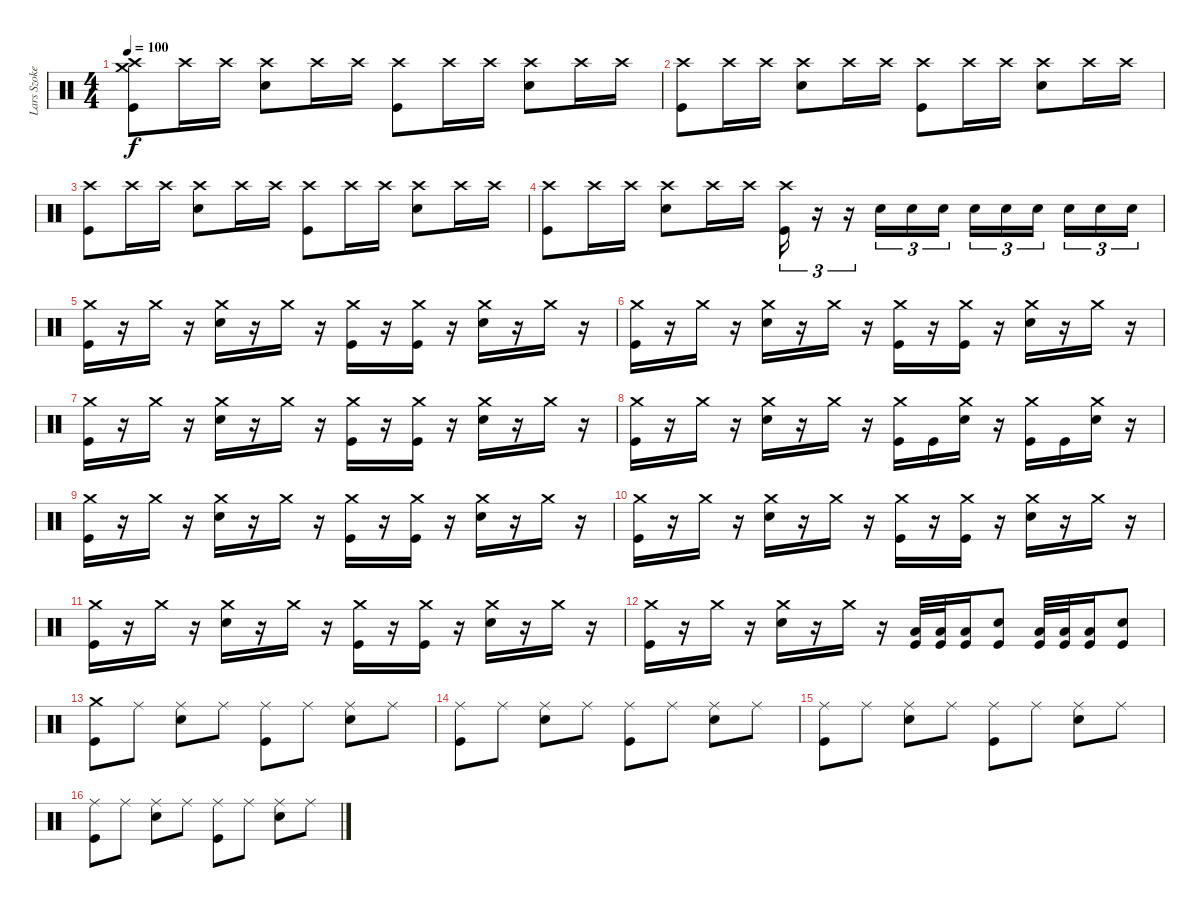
\track ("Lars Szoke" "Lars Szoke") {instrument percussion}
\staff {score}
\articulation defaults
\ts (4 4)
\tempo 100
\clef neutral
\ks c
("Crash high (hit)" "Crash medium (hit)" "Kick (hit)").8{dy f} "Crash high (hit)".16 "Crash high (hit)".16 ("Crash high (hit)" "Electric Snare (hit)").8 "Crash high (hit)".16 "Crash high (hit)".16 ("Crash high (hit)" "Kick (hit)").8 "Crash high (hit)".16 "Crash high (hit)".16 ("Crash high (hit)" "Electric Snare (hit)").8 "Crash high (hit)".16 "Crash high (hit)".16 |
("Crash high (hit)" "Kick (hit)").8 "Crash high (hit)".16 "Crash high (hit)".16 ("Crash high (hit)" "Electric Snare (hit)").8 "Crash high (hit)".16 "Crash high (hit)".16 ("Crash high (hit)" "Kick (hit)").8 "Crash high (hit)".16 "Crash high (hit)".16 ("Crash high (hit)" "Electric Snare (hit)").8 "Crash high (hit)".16 "Crash high (hit)".16 |
("Crash high (hit)" "Kick (hit)").8 "Crash high (hit)".16 "Crash high (hit)".16 ("Crash high (hit)" "Electric Snare (hit)").8 "Crash high (hit)".16 "Crash high (hit)".16 ("Crash high (hit)" "Kick (hit)").8 "Crash high (hit)".16 "Crash high (hit)".16 ("Crash high (hit)" "Electric Snare (hit)").8 "Crash high (hit)".16 "Crash high (hit)".16 |
("Crash high (hit)" "Kick (hit)").8 "Crash high (hit)".16 "Crash high (hit)".16 ("Crash high (hit)" "Electric Snare (hit)").8 "Crash high (hit)".16 "Crash high (hit)".16 ("Crash high (hit)" "Kick (hit)").16{tu (3 2)} r.16{tu (3 2)} r.16{tu (3 2)} "Electric Snare (hit)".16{tu (3 2)} "Electric Snare (hit)".16{tu (3 2)} "Electric Snare (hit)".16{tu (3 2)} "Electric Snare (hit)".16{tu (3 2)} "Electric Snare (hit)".16{tu (3 2)} "Electric Snare (hit)".16{tu (3 2) beam splitsecondary} "Electric Snare (hit)".16{tu (3 2)} "Electric Snare (hit)".16{tu (3 2)} "Electric Snare (hit)".16{tu (3 2)} |
("Crash medium (hit)" "Kick (hit)").16 r.16 "Crash medium (hit)".16 r.16 ("Crash medium (hit)" "Electric Snare (hit)").16 r.16 "Crash medium (hit)".16 r.16 ("Crash medium (hit)" "Kick (hit)").16 r.16 ("Crash medium (hit)" "Kick (hit)").16 r.16 ("Crash medium (hit)" "Electric Snare (hit)").16 r.16 "Crash medium (hit)".16 r.16 |
("Crash medium (hit)" "Kick (hit)").16 r.16 "Crash medium (hit)".16 r.16 ("Crash medium (hit)" "Electric Snare (hit)").16 r.16 "Crash medium (hit)".16 r.16 ("Crash medium (hit)" "Kick (hit)").16 r.16 ("Crash medium (hit)" "Kick (hit)").16 r.16 ("Crash medium (hit)" "Electric Snare (hit)").16 r.16 "Crash medium (hit)".16 r.16 |
("Crash medium (hit)" "Kick (hit)").16 r.16 "Crash medium (hit)".16 r.16 ("Crash medium (hit)" "Electric Snare (hit)").16 r.16 "Crash medium (hit)".16 r.16 ("Crash medium (hit)" "Kick (hit)").16 r.16 ("Crash medium (hit)" "Kick (hit)").16 r.16 ("Crash medium (hit)" "Electric Snare (hit)").16 r.16 "Crash medium (hit)".16 r.16 |
("Crash medium (hit)" "Kick (hit)").16 r.16 "Crash medium (hit)".16 r.16 ("Crash medium (hit)" "Electric Snare (hit)").16 r.16 "Crash medium (hit)".16 r.16 ("Crash medium (hit)" "Kick (hit)").16 "Kick (hit)".16 ("Crash medium (hit)" "Electric Snare (hit)").16 r.16 ("Crash medium (hit)" "Kick (hit)").16 "Kick (hit)".16 ("Crash medium (hit)" "Electric Snare (hit)").16 r.16 |
("Crash medium (hit)" "Kick (hit)").16 r.16 "Crash medium (hit)".16 r.16 ("Crash medium (hit)" "Electric Snare (hit)").16 r.16 "Crash medium (hit)".16 r.16 ("Crash medium (hit)" "Kick (hit)").16 r.16 ("Crash medium (hit)" "Kick (hit)").16 r.16 ("Crash medium (hit)" "Electric Snare (hit)").16 r.16 "Crash medium (hit)".16 r.16 |
("Crash medium (hit)" "Kick (hit)").16 r.16 "Crash medium (hit)".16 r.16 ("Crash medium (hit)" "Electric Snare (hit)").16 r.16 "Crash medium (hit)".16 r.16 ("Crash medium (hit)" "Kick (hit)").16 r.16 ("Crash medium (hit)" "Kick (hit)").16 r.16 ("Crash medium (hit)" "Electric Snare (hit)").16 r.16 "Crash medium (hit)".16 r.16 |
("Crash medium (hit)" "Kick (hit)").16 r.16 "Crash medium (hit)".16 r.16 ("Crash medium (hit)" "Electric Snare (hit)").16 r.16 "Crash medium (hit)".16 r.16 ("Crash medium (hit)" "Kick (hit)").16 r.16 ("Crash medium (hit)" "Kick (hit)").16 r.16 ("Crash medium (hit)" "Electric Snare (hit)").16 r.16 "Crash medium (hit)".16 r.16 |
("Crash medium (hit)" "Kick (hit)").16 r.16 "Crash medium (hit)".16 r.16 ("Crash medium (hit)" "Electric Snare (hit)").16 r.16 "Crash medium (hit)".16 r.16 ("Low Tom (hit)" "Kick (hit)").32 ("Low Tom (hit)" "Kick (hit)").32 ("Low Tom (hit)" "Kick (hit)").16 ("Electric Snare (hit)" "Kick (hit)").8 ("Low Tom (hit)" "Kick (hit)").32 ("Low Tom (hit)" "Kick (hit)").32 ("Low Tom (hit)" "Kick (hit)").16 ("Electric Snare (hit)" "Kick (hit)").8 |
("Crash medium (hit)" "Kick (hit)").8 "Ride (middle)".8 ("Ride (middle)" "Electric Snare (hit)").8 "Ride (middle)".8 ("Ride (middle)" "Kick (hit)").8 "Ride (middle)".8 ("Ride (middle)" "Electric Snare (hit)").8 "Ride (middle)".8 |
("Ride (middle)" "Kick (hit)").8 "Ride (middle)".8 ("Ride (middle)" "Electric Snare (hit)").8 "Ride (middle)".8 ("Ride (middle)" "Kick (hit)").8 "Ride (middle)".8 ("Ride (middle)" "Electric Snare (hit)").8 "Ride (middle)".8 |
("Ride (middle)" "Kick (hit)").8 "Ride (middle)".8 ("Ride (middle)" "Electric Snare (hit)").8 "Ride (middle)".8 ("Ride (middle)" "Kick (hit)").8 "Ride (middle)".8 ("Ride (middle)" "Electric Snare (hit)").8 "Ride (middle)".8 |
("Ride (middle)" "Kick (hit)").8 "Ride (middle)".8 ("Ride (middle)" "Electric Snare (hit)").8 "Ride (middle)".8 ("Ride (middle)" "Kick (hit)").8 "Ride (middle)".8 ("Ride (middle)" "Electric Snare (hit)").8 "Ride (middle)".8
